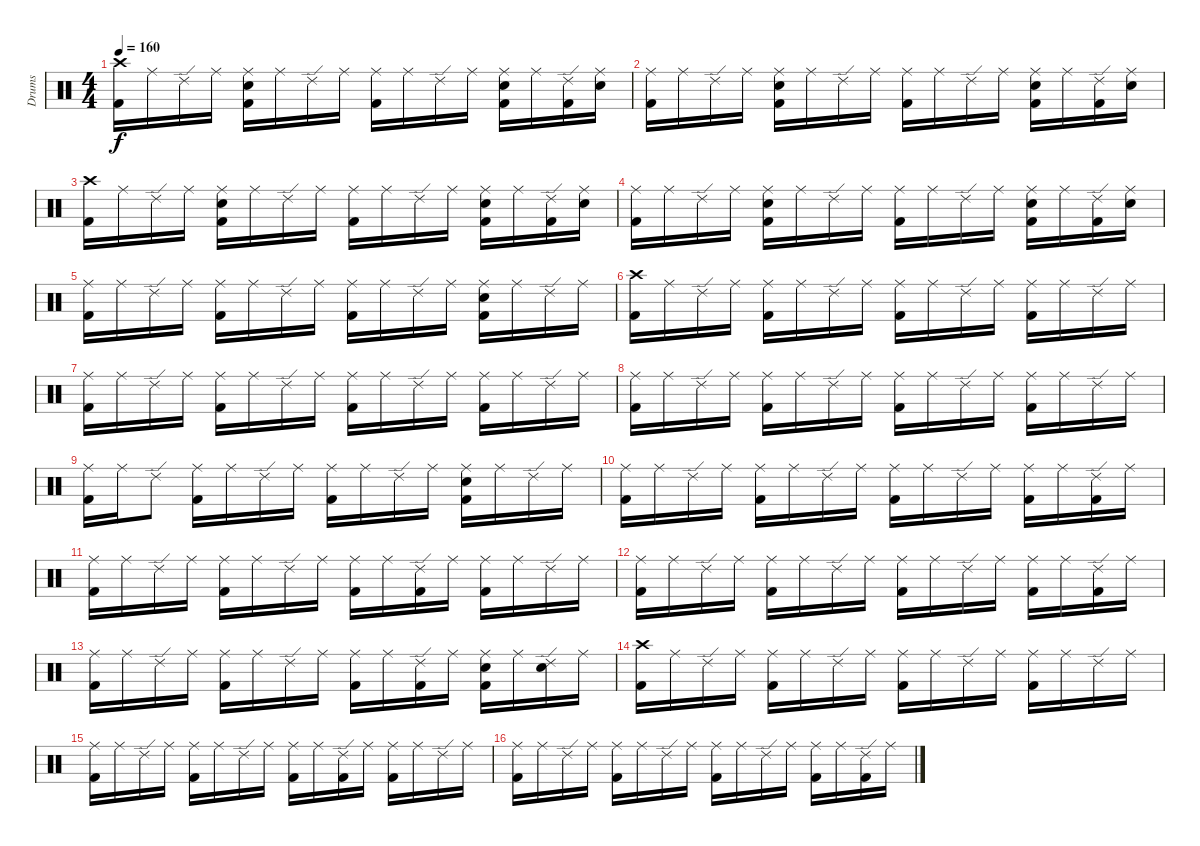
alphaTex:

\track ("Drums" "Drums") {instrument percussion}
\staff {score}
\articulation defaults
\ts (4 4)
\tempo 160
\clef neutral
\ks c
("Crash high (hit)" "Kick (hit) 2").16{dy f} "Ride (middle)".16 "Ride (edge) 2".16 "Ride (middle)".16 ("Ride (middle)" "Electric Snare (hit)" "Kick (hit) 2").16 "Ride (middle)".16 "Ride (edge) 2".16 "Ride (middle)".16 ("Ride (middle)" "Kick (hit) 2").16 "Ride (middle)".16 "Ride (edge) 2".16 "Ride (middle)".16 ("Ride (middle)" "Electric Snare (hit)" "Kick (hit) 2").16 "Ride (middle)".16 ("Ride (edge) 2" "Kick (hit) 2").16 ("Ride (middle)" "Electric Snare (hit)").16 |
("Ride (middle)" "Kick (hit) 2").16 "Ride (middle)".16 "Ride (edge) 2".16 "Ride (middle)".16 ("Ride (middle)" "Electric Snare (hit)" "Kick (hit) 2").16 "Ride (middle)".16 "Ride (edge) 2".16 "Ride (middle)".16 ("Ride (middle)" "Kick (hit) 2").16 "Ride (middle)".16 "Ride (edge) 2".16 "Ride (middle)".16 ("Ride (middle)" "Electric Snare (hit)" "Kick (hit) 2").16 "Ride (middle)".16 ("Ride (edge) 2" "Kick (hit) 2").16 ("Ride (middle)" "Electric Snare (hit)").16 |
("Crash high (hit)" "Kick (hit) 2").16 "Ride (middle)".16 "Ride (edge) 2".16 "Ride (middle)".16 ("Ride (middle)" "Electric Snare (hit)" "Kick (hit) 2").16 "Ride (middle)".16 "Ride (edge) 2".16 "Ride (middle)".16 ("Ride (middle)" "Kick (hit) 2").16 "Ride (middle)".16 "Ride (edge) 2".16 "Ride (middle)".16 ("Ride (middle)" "Electric Snare (hit)" "Kick (hit) 2").16 "Ride (middle)".16 ("Ride (edge) 2" "Kick (hit) 2").16 ("Ride (middle)" "Electric Snare (hit)").16 |
("Ride (middle)" "Kick (hit) 2").16 "Ride (middle)".16 "Ride (edge) 2".16 "Ride (middle)".16 ("Ride (middle)" "Electric Snare (hit)" "Kick (hit) 2").16 "Ride (middle)".16 "Ride (edge) 2".16 "Ride (middle)".16 ("Ride (middle)" "Kick (hit) 2").16 "Ride (middle)".16 "Ride (edge) 2".16 "Ride (middle)".16 ("Ride (middle)" "Electric Snare (hit)" "Kick (hit) 2").16 "Ride (middle)".16 ("Ride (edge) 2" "Kick (hit) 2").16 ("Ride (middle)" "Electric Snare (hit)").16 |
("Ride (middle)" "Kick (hit) 2").16 "Ride (middle)".16 "Ride (edge) 2".16 "Ride (middle)".16 ("Ride (middle)" "Kick (hit) 2").16 "Ride (middle)".16 "Ride (edge) 2".16 "Ride (middle)".16 ("Ride (middle)" "Kick (hit) 2").16 "Ride (middle)".16 "Ride (edge) 2".16 "Ride (middle)".16 ("Ride (middle)" "Electric Snare (hit)" "Kick (hit) 2").16 "Ride (middle)".16 "Ride (edge) 2".16 "Ride (middle)".16 |
("Crash high (hit)" "Kick (hit) 2").16 "Ride (middle)".16 "Ride (edge) 2".16 "Ride (middle)".16 ("Ride (middle)" "Kick (hit) 2").16 "Ride (middle)".16 "Ride (edge) 2".16 "Ride (middle)".16 ("Ride (middle)" "Kick (hit) 2").16 "Ride (middle)".16 "Ride (edge) 2".16 "Ride (middle)".16 ("Ride (middle)" "Kick (hit) 2").16 "Ride (middle)".16 "Ride (edge) 2".16 "Ride (middle)".16 |
("Ride (middle)" "Kick (hit) 2").16 "Ride (middle)".16 "Ride (edge) 2".16 "Ride (middle)".16 ("Ride (middle)" "Kick (hit) 2").16 "Ride (middle)".16 "Ride (edge) 2".16 "Ride (middle)".16 ("Ride (middle)" "Kick (hit) 2").16 "Ride (middle)".16 "Ride (edge) 2".16 "Ride (middle)".16 ("Ride (middle)" "Kick (hit) 2").16 "Ride (middle)".16 "Ride (edge) 2".16 "Ride (middle)".16 |
("Ride (middle)" "Kick (hit) 2").16 "Ride (middle)".16 "Ride (edge) 2".16 "Ride (middle)".16 ("Ride (middle)" "Kick (hit) 2").16 "Ride (middle)".16 "Ride (edge) 2".16 "Ride (middle)".16 ("Ride (middle)" "Kick (hit) 2").16 "Ride (middle)".16 "Ride (edge) 2".16 "Ride (middle)".16 ("Ride (middle)" "Kick (hit) 2").16 "Ride (middle)".16 "Ride (edge) 2".16 "Ride (middle)".16 |
("Ride (middle)" "Kick (hit) 2").16 "Ride (middle)".16 "Ride (edge) 2".8 ("Ride (middle)" "Kick (hit) 2").16 "Ride (middle)".16 "Ride (edge) 2".16 "Ride (middle)".16 ("Ride (middle)" "Kick (hit) 2").16 "Ride (middle)".16 "Ride (edge) 2".16 "Ride (middle)".16 ("Ride (middle)" "Electric Snare (hit)" "Kick (hit) 2").16 "Ride (middle)".16 "Ride (edge) 2".16 "Ride (middle)".16 |
("Ride (middle)" "Kick (hit) 2").16 "Ride (middle)".16 "Ride (edge) 2".16 "Ride (middle)".16 ("Ride (middle)" "Kick (hit) 2").16 "Ride (middle)".16 "Ride (edge) 2".16 "Ride (middle)".16 ("Ride (middle)" "Kick (hit) 2").16 "Ride (middle)".16 "Ride (edge) 2".16 "Ride (middle)".16 ("Ride (middle)" "Kick (hit) 2").16 "Ride (middle)".16 ("Ride (edge) 2" "Kick (hit) 2").16 "Ride (middle)".16 |
("Ride (middle)" "Kick (hit) 2").16 "Ride (middle)".16 "Ride (edge) 2".16 "Ride (middle)".16 ("Ride (middle)" "Kick (hit) 2").16 "Ride (middle)".16 "Ride (edge) 2".16 "Ride (middle)".16 ("Ride (middle)" "Kick (hit) 2").16 "Ride (middle)".16 ("Ride (edge) 2" "Kick (hit) 2").16 "Ride (middle)".16 ("Ride (middle)" "Kick (hit) 2").16 "Ride (middle)".16 "Ride (edge) 2".16 "Ride (middle)".16 |
("Ride (middle)" "Kick (hit) 2").16 "Ride (middle)".16 "Ride (edge) 2".16 "Ride (middle)".16 ("Ride (middle)" "Kick (hit) 2").16 "Ride (middle)".16 "Ride (edge) 2".16 "Ride (middle)".16 ("Ride (middle)" "Kick (hit) 2").16 "Ride (middle)".16 "Ride (edge) 2".16 "Ride (middle)".16 ("Ride (middle)" "Kick (hit) 2").16 "Ride (middle)".16 ("Ride (edge) 2" "Kick (hit) 2").16 "Ride (middle)".16 |
("Ride (middle)" "Kick (hit) 2").16 "Ride (middle)".16 "Ride (edge) 2".16 "Ride (middle)".16 ("Ride (middle)" "Kick (hit) 2").16 "Ride (middle)".16 "Ride (edge) 2".16 "Ride (middle)".16 ("Ride (middle)" "Kick (hit) 2").16 "Ride (middle)".16 ("Ride (edge) 2" "Kick (hit) 2").16 "Ride (middle)".16 ("Ride (middle)" "Electric Snare (hit)" "Kick (hit) 2").16 "Ride (middle)".16 ("Ride (edge) 2" "Electric Snare (hit)").16 "Ride (middle)".16 |
("Crash high (hit)" "Kick (hit) 2").16 "Ride (middle)".16 "Ride (edge) 2".16 "Ride (middle)".16 ("Ride (middle)" "Kick (hit) 2").16 "Ride (middle)".16 "Ride (edge) 2".16 "Ride (middle)".16 ("Ride (middle)" "Kick (hit) 2").16 "Ride (middle)".16 "Ride (edge) 2".16 "Ride (middle)".16 ("Ride (middle)" "Kick (hit) 2").16 "Ride (middle)".16 "Ride (edge) 2".16 "Ride (middle)".16 |
("Ride (middle)" "Kick (hit) 2").16 "Ride (middle)".16 "Ride (edge) 2".16 "Ride (middle)".16 ("Ride (middle)" "Kick (hit) 2").16 "Ride (middle)".16 "Ride (edge) 2".16 "Ride (middle)".16 ("Ride (middle)" "Kick (hit) 2").16 "Ride (middle)".16 ("Ride (edge) 2" "Kick (hit) 2").16 "Ride (middle)".16 ("Ride (middle)" "Kick (hit) 2").16 "Ride (middle)".16 "Ride (edge) 2".16 "Ride (middle)".16 |
("Ride (middle)" "Kick (hit) 2").16 "Ride (middle)".16 "Ride (edge) 2".16 "Ride (middle)".16 ("Ride (middle)" "Kick (hit) 2").16 "Ride (middle)".16 "Ride (edge) 2".16 "Ride (middle)".16 ("Ride (middle)" "Kick (hit) 2").16 "Ride (middle)".16 "Ride (edge) 2".16 "Ride (middle)".16 ("Ride (middle)" "Kick (hit) 2").16 "Ride (middle)".16 ("Ride (edge) 2" "Kick (hit) 2").16 "Ride (middle)".16
